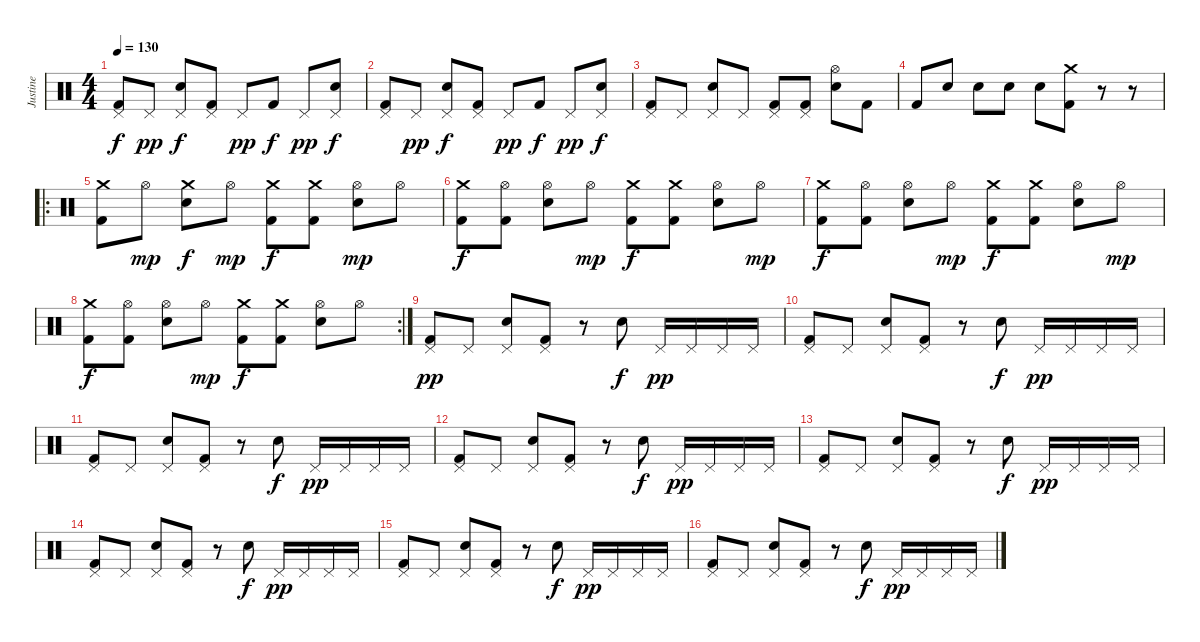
\track ("Justine" "Justine") {instrument percussion}
\staff {score}
\articulation defaults
\ts (4 4)
\tempo 130
\clef neutral
\ks c
("Pedal Hi-Hat (hit)" "Kick (hit) 2").8{dy f} "Pedal Hi-Hat (hit)".8{dy pp} ("Pedal Hi-Hat (hit)" "Electric Snare (hit)").8{dy f} ("Pedal Hi-Hat (hit)" "Kick (hit) 2").8 "Pedal Hi-Hat (hit)".8{dy pp} "Kick (hit) 2".8{dy f} "Pedal Hi-Hat (hit)".8{dy pp} ("Pedal Hi-Hat (hit)" "Electric Snare (hit)").8{dy f} |
("Pedal Hi-Hat (hit)" "Kick (hit) 2").8 "Pedal Hi-Hat (hit)".8{dy pp} ("Pedal Hi-Hat (hit)" "Electric Snare (hit)").8{dy f} ("Pedal Hi-Hat (hit)" "Kick (hit) 2").8 "Pedal Hi-Hat (hit)".8{dy pp} "Kick (hit) 2".8{dy f} "Pedal Hi-Hat (hit)".8{dy pp} ("Pedal Hi-Hat (hit)" "Electric Snare (hit)").8{dy f} |
("Pedal Hi-Hat (hit)" "Kick (hit) 2").8 "Pedal Hi-Hat (hit)".8 ("Pedal Hi-Hat (hit)" "Electric Snare (hit)").8 "Pedal Hi-Hat (hit)".8 ("Pedal Hi-Hat (hit)" "Kick (hit) 2").8 ("Pedal Hi-Hat (hit)" "Kick (hit) 2").8 ("Hi-Hat (open)" "Electric Snare (hit)").8 "Kick (hit) 2".8 |
"Kick (hit) 2".8 "Electric Snare (hit)".8 "Electric Snare (hit)".8 "Electric Snare (hit)".8 "Electric Snare (hit)".8 ("Crash medium (hit)" "Kick (hit) 2").8 r.8 r.8 |
\ro
("Crash medium (hit)" "Kick (hit) 2").8 "Hi-Hat (open)".8{dy mp} ("Crash medium (hit)" "Electric Snare (hit)").8{dy f} "Hi-Hat (open)".8{dy mp} ("Crash medium (hit)" "Kick (hit) 2").8{dy f} ("Crash medium (hit)" "Kick (hit) 2").8 ("Hi-Hat (open)" "Electric Snare (hit)").8{dy mp} "Hi-Hat (open)".8 |
("Crash medium (hit)" "Kick (hit) 2").8{dy f} ("Hi-Hat (open)" "Kick (hit) 2").8 ("Hi-Hat (open)" "Electric Snare (hit)").8 "Hi-Hat (open)".8{dy mp} ("Crash medium (hit)" "Kick (hit) 2").8{dy f} ("Crash medium (hit)" "Kick (hit) 2").8 ("Hi-Hat (open)" "Electric Snare (hit)").8 "Hi-Hat (open)".8{dy mp} |
("Crash medium (hit)" "Kick (hit) 2").8{dy f} ("Hi-Hat (open)" "Kick (hit) 2").8 ("Hi-Hat (open)" "Electric Snare (hit)").8 "Hi-Hat (open)".8{dy mp} ("Crash medium (hit)" "Kick (hit) 2").8{dy f} ("Crash medium (hit)" "Kick (hit) 2").8 ("Hi-Hat (open)" "Electric Snare (hit)").8 "Hi-Hat (open)".8{dy mp} |
\rc 2
("Crash medium (hit)" "Kick (hit) 2").8{dy f} ("Hi-Hat (open)" "Kick (hit) 2").8 ("Hi-Hat (open)" "Electric Snare (hit)").8 "Hi-Hat (open)".8{dy mp} ("Crash medium (hit)" "Kick (hit) 2").8{dy f} ("Crash medium (hit)" "Kick (hit) 2").8 ("Hi-Hat (open)" "Electric Snare (hit)").8 "Hi-Hat (open)".8 |
("Pedal Hi-Hat (hit)" "Kick (hit) 2").8{dy pp} "Pedal Hi-Hat (hit)".8 ("Pedal Hi-Hat (hit)" "Electric Snare (hit)").8 ("Pedal Hi-Hat (hit)" "Kick (hit) 2").8 r.8 "Electric Snare (hit)".8{dy f} "Pedal Hi-Hat (hit)".16{dy pp} "Pedal Hi-Hat (hit)".16 "Pedal Hi-Hat (hit)".16 "Pedal Hi-Hat (hit)".16 |
("Pedal Hi-Hat (hit)" "Kick (hit) 2").8 "Pedal Hi-Hat (hit)".8 ("Pedal Hi-Hat (hit)" "Electric Snare (hit)").8 ("Pedal Hi-Hat (hit)" "Kick (hit) 2").8 r.8 "Electric Snare (hit)".8{dy f} "Pedal Hi-Hat (hit)".16{dy pp} "Pedal Hi-Hat (hit)".16 "Pedal Hi-Hat (hit)".16 "Pedal Hi-Hat (hit)".16 |
("Pedal Hi-Hat (hit)" "Kick (hit) 2").8 "Pedal Hi-Hat (hit)".8 ("Pedal Hi-Hat (hit)" "Electric Snare (hit)").8 ("Pedal Hi-Hat (hit)" "Kick (hit) 2").8 r.8 "Electric Snare (hit)".8{dy f} "Pedal Hi-Hat (hit)".16{dy pp} "Pedal Hi-Hat (hit)".16 "Pedal Hi-Hat (hit)".16 "Pedal Hi-Hat (hit)".16 |
("Pedal Hi-Hat (hit)" "Kick (hit) 2").8 "Pedal Hi-Hat (hit)".8 ("Pedal Hi-Hat (hit)" "Electric Snare (hit)").8 ("Pedal Hi-Hat (hit)" "Kick (hit) 2").8 r.8 "Electric Snare (hit)".8{dy f} "Pedal Hi-Hat (hit)".16{dy pp} "Pedal Hi-Hat (hit)".16 "Pedal Hi-Hat (hit)".16 "Pedal Hi-Hat (hit)".16 |
("Pedal Hi-Hat (hit)" "Kick (hit) 2").8 "Pedal Hi-Hat (hit)".8 ("Pedal Hi-Hat (hit)" "Electric Snare (hit)").8 ("Pedal Hi-Hat (hit)" "Kick (hit) 2").8 r.8 "Electric Snare (hit)".8{dy f} "Pedal Hi-Hat (hit)".16{dy pp} "Pedal Hi-Hat (hit)".16 "Pedal Hi-Hat (hit)".16 "Pedal Hi-Hat (hit)".16 |
("Pedal Hi-Hat (hit)" "Kick (hit) 2").8 "Pedal Hi-Hat (hit)".8 ("Pedal Hi-Hat (hit)" "Electric Snare (hit)").8 ("Pedal Hi-Hat (hit)" "Kick (hit) 2").8 r.8 "Electric Snare (hit)".8{dy f} "Pedal Hi-Hat (hit)".16{dy pp} "Pedal Hi-Hat (hit)".16 "Pedal Hi-Hat (hit)".16 "Pedal Hi-Hat (hit)".16 |
("Pedal Hi-Hat (hit)" "Kick (hit) 2").8 "Pedal Hi-Hat (hit)".8 ("Pedal Hi-Hat (hit)" "Electric Snare (hit)").8 ("Pedal Hi-Hat (hit)" "Kick (hit) 2").8 r.8 "Electric Snare (hit)".8{dy f} "Pedal Hi-Hat (hit)".16{dy pp} "Pedal Hi-Hat (hit)".16 "Pedal Hi-Hat (hit)".16 "Pedal Hi-Hat (hit)".16 |
("Pedal Hi-Hat (hit)" "Kick (hit) 2").8 "Pedal Hi-Hat (hit)".8 ("Pedal Hi-Hat (hit)" "Electric Snare (hit)").8 ("Pedal Hi-Hat (hit)" "Kick (hit) 2").8 r.8 "Electric Snare (hit)".8{dy f} "Pedal Hi-Hat (hit)".16{dy pp} "Pedal Hi-Hat (hit)".16 "Pedal Hi-Hat (hit)".16 "Pedal Hi-Hat (hit)".16
